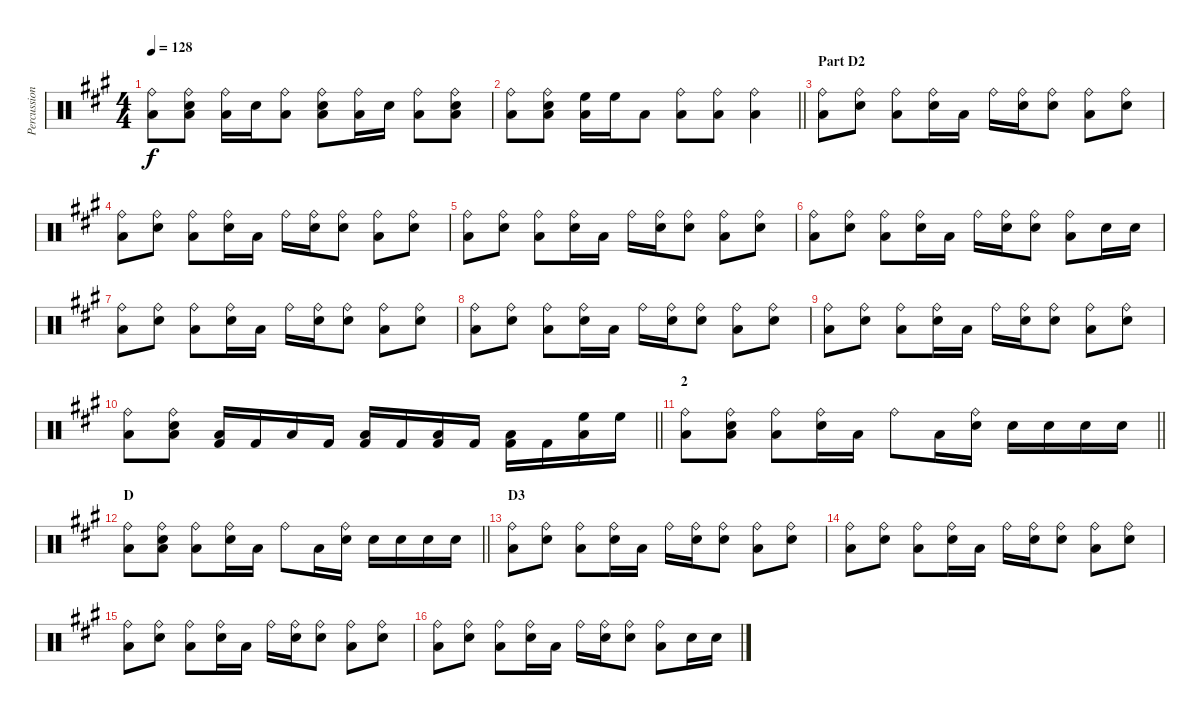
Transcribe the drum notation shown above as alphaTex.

\track ("Percussions" "Percussion") {instrument percussion}
\staff {score}
\articulation defaults
\ts (4 4)
\tempo 128
\clef neutral
\ks a
("Ride (bell)" "Low Floor Tom (hit)").8{dy f} ("Ride (bell)" "Snare (hit) 2" "Low Floor Tom (hit)").8 ("Ride (bell)" "Low Floor Tom (hit)").16 "Snare (hit) 2".16 ("Ride (bell)" "Low Floor Tom (hit)").8 ("Ride (bell)" "Snare (hit) 2" "Low Floor Tom (hit)").8 ("Ride (bell)" "Low Floor Tom (hit)").16 "Snare (hit) 2".16 ("Ride (bell)" "Low Floor Tom (hit)").8 ("Ride (bell)" "Snare (hit) 2" "Low Floor Tom (hit)").8 |
\barLineRight lightlight
("Ride (bell)" "Low Floor Tom (hit)").8 ("Ride (bell)" "Snare (hit) 2" "Low Floor Tom (hit)").8 ("High Floor Tom (hit)" "Low Floor Tom (hit)").16 "High Floor Tom (hit)".16 "Low Floor Tom (hit)".8 ("Ride (bell)" "Low Floor Tom (hit)").8 ("Ride (bell)" "Low Floor Tom (hit)").8 ("Ride (bell)" "Low Floor Tom (hit)").4 |
\section ("" "Part D2")
("Ride (bell)" "Low Floor Tom (hit)").8 ("Ride (bell)" "Snare (hit) 2").8 ("Ride (bell)" "Low Floor Tom (hit)").8 ("Ride (bell)" "Snare (hit) 2").16 "Low Floor Tom (hit)".16 "Ride (bell)".16 ("Ride (bell)" "Snare (hit) 2").16 ("Ride (bell)" "Snare (hit) 2").8 ("Ride (bell)" "Low Floor Tom (hit)").8 ("Ride (bell)" "Snare (hit) 2").8 |
("Ride (bell)" "Low Floor Tom (hit)").8 ("Ride (bell)" "Snare (hit) 2").8 ("Ride (bell)" "Low Floor Tom (hit)").8 ("Ride (bell)" "Snare (hit) 2").16 "Low Floor Tom (hit)".16 "Ride (bell)".16 ("Ride (bell)" "Snare (hit) 2").16 ("Ride (bell)" "Snare (hit) 2").8 ("Ride (bell)" "Low Floor Tom (hit)").8 ("Ride (bell)" "Snare (hit) 2").8 |
("Ride (bell)" "Low Floor Tom (hit)").8 ("Ride (bell)" "Snare (hit) 2").8 ("Ride (bell)" "Low Floor Tom (hit)").8 ("Ride (bell)" "Snare (hit) 2").16 "Low Floor Tom (hit)".16 "Ride (bell)".16 ("Ride (bell)" "Snare (hit) 2").16 ("Ride (bell)" "Snare (hit) 2").8 ("Ride (bell)" "Low Floor Tom (hit)").8 ("Ride (bell)" "Snare (hit) 2").8 |
("Ride (bell)" "Low Floor Tom (hit)").8 ("Ride (bell)" "Snare (hit) 2").8 ("Ride (bell)" "Low Floor Tom (hit)").8 ("Ride (bell)" "Snare (hit) 2").16 "Low Floor Tom (hit)".16 "Ride (bell)".16 ("Ride (bell)" "Snare (hit) 2").16 ("Ride (bell)" "Snare (hit) 2").8 ("Ride (bell)" "Low Floor Tom (hit)").8 "Snare (hit) 2".16 "Snare (hit) 2".16 |
("Ride (bell)" "Low Floor Tom (hit)").8 ("Ride (bell)" "Snare (hit) 2").8 ("Ride (bell)" "Low Floor Tom (hit)").8 ("Ride (bell)" "Snare (hit) 2").16 "Low Floor Tom (hit)".16 "Ride (bell)".16 ("Ride (bell)" "Snare (hit) 2").16 ("Ride (bell)" "Snare (hit) 2").8 ("Ride (bell)" "Low Floor Tom (hit)").8 ("Ride (bell)" "Snare (hit) 2").8 |
("Ride (bell)" "Low Floor Tom (hit)").8 ("Ride (bell)" "Snare (hit) 2").8 ("Ride (bell)" "Low Floor Tom (hit)").8 ("Ride (bell)" "Snare (hit) 2").16 "Low Floor Tom (hit)".16 "Ride (bell)".16 ("Ride (bell)" "Snare (hit) 2").16 ("Ride (bell)" "Snare (hit) 2").8 ("Ride (bell)" "Low Floor Tom (hit)").8 ("Ride (bell)" "Snare (hit) 2").8 |
("Ride (bell)" "Low Floor Tom (hit)").8 ("Ride (bell)" "Snare (hit) 2").8 ("Ride (bell)" "Low Floor Tom (hit)").8 ("Ride (bell)" "Snare (hit) 2").16 "Low Floor Tom (hit)".16 "Ride (bell)".16 ("Ride (bell)" "Snare (hit) 2").16 ("Ride (bell)" "Snare (hit) 2").8 ("Ride (bell)" "Low Floor Tom (hit)").8 ("Ride (bell)" "Snare (hit) 2").8 |
\barLineRight lightlight
("Ride (bell)" "Low Floor Tom (hit)").8 ("Ride (bell)" "Snare (hit) 2" "Low Floor Tom (hit)").8 ("Kick (hit) 2" "Low Floor Tom (hit)").16 "Kick (hit) 2".16 "Low Floor Tom (hit)".16 "Kick (hit) 2".16 ("Kick (hit) 2" "Low Floor Tom (hit)").16 "Kick (hit) 2".16 ("Low Floor Tom (hit)" "Kick (hit) 2").16 "Kick (hit) 2".16 ("Kick (hit) 2" "Low Floor Tom (hit)").16 "Kick (hit) 2".16 ("High Floor Tom (hit)" "Low Floor Tom (hit)").16 "High Floor Tom (hit)".16 |
\section ("" "2")
\barLineRight lightlight
("Ride (bell)" "Low Floor Tom (hit)").8 ("Ride (bell)" "Snare (hit) 2" "Low Floor Tom (hit)").8 ("Ride (bell)" "Low Floor Tom (hit)").8 ("Ride (bell)" "Snare (hit) 2").16 "Low Floor Tom (hit)".16 "Ride (bell)".8 "Low Floor Tom (hit)".16 ("Ride (bell)" "Snare (hit) 2").16 "Snare (hit) 2".16 "Snare (hit) 2".16 "Snare (hit) 2".16 "Snare (hit) 2".16 |
\section ("" "D")
\barLineRight lightlight
("Ride (bell)" "Low Floor Tom (hit)").8 ("Ride (bell)" "Snare (hit) 2" "Low Floor Tom (hit)").8 ("Ride (bell)" "Low Floor Tom (hit)").8 ("Ride (bell)" "Snare (hit) 2").16 "Low Floor Tom (hit)".16 "Ride (bell)".8 "Low Floor Tom (hit)".16 ("Ride (bell)" "Snare (hit) 2").16 "Snare (hit) 2".16 "Snare (hit) 2".16 "Snare (hit) 2".16 "Snare (hit) 2".16 |
\section ("" "D3")
("Ride (bell)" "Low Floor Tom (hit)").8 ("Ride (bell)" "Snare (hit) 2").8 ("Ride (bell)" "Low Floor Tom (hit)").8 ("Ride (bell)" "Snare (hit) 2").16 "Low Floor Tom (hit)".16 "Ride (bell)".16 ("Ride (bell)" "Snare (hit) 2").16 ("Ride (bell)" "Snare (hit) 2").8 ("Ride (bell)" "Low Floor Tom (hit)").8 ("Ride (bell)" "Snare (hit) 2").8 |
("Ride (bell)" "Low Floor Tom (hit)").8 ("Ride (bell)" "Snare (hit) 2").8 ("Ride (bell)" "Low Floor Tom (hit)").8 ("Ride (bell)" "Snare (hit) 2").16 "Low Floor Tom (hit)".16 "Ride (bell)".16 ("Ride (bell)" "Snare (hit) 2").16 ("Ride (bell)" "Snare (hit) 2").8 ("Ride (bell)" "Low Floor Tom (hit)").8 ("Ride (bell)" "Snare (hit) 2").8 |
("Ride (bell)" "Low Floor Tom (hit)").8 ("Ride (bell)" "Snare (hit) 2").8 ("Ride (bell)" "Low Floor Tom (hit)").8 ("Ride (bell)" "Snare (hit) 2").16 "Low Floor Tom (hit)".16 "Ride (bell)".16 ("Ride (bell)" "Snare (hit) 2").16 ("Ride (bell)" "Snare (hit) 2").8 ("Ride (bell)" "Low Floor Tom (hit)").8 ("Ride (bell)" "Snare (hit) 2").8 |
("Ride (bell)" "Low Floor Tom (hit)").8 ("Ride (bell)" "Snare (hit) 2").8 ("Ride (bell)" "Low Floor Tom (hit)").8 ("Ride (bell)" "Snare (hit) 2").16 "Low Floor Tom (hit)".16 "Ride (bell)".16 ("Ride (bell)" "Snare (hit) 2").16 ("Ride (bell)" "Snare (hit) 2").8 ("Ride (bell)" "Low Floor Tom (hit)").8 "Snare (hit) 2".16 "Snare (hit) 2".16
